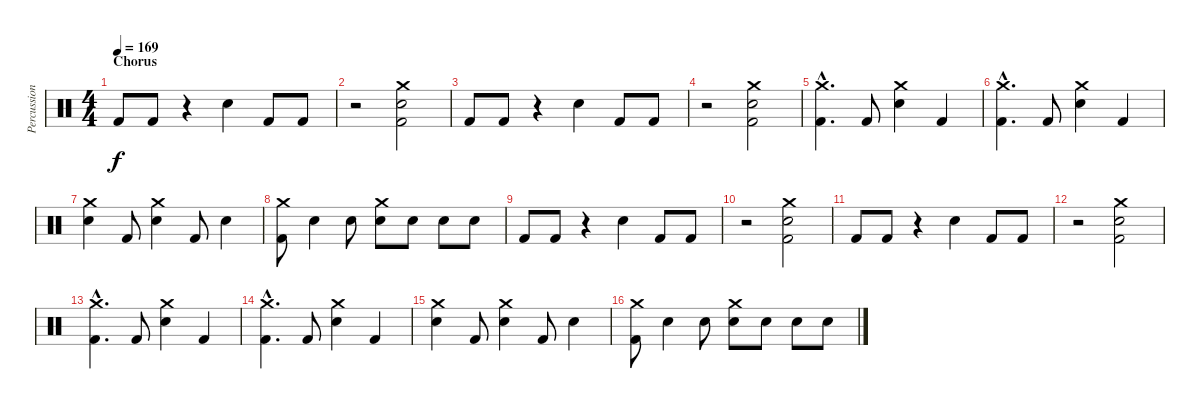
\track ("Percussion" "Percussion") {instrument percussion}
\staff {score}
\articulation defaults
\ts (4 4)
\section ("" "Chorus")
\tempo 169
\clef neutral
\ks c "Kick (hit) 2".8{dy f} "Kick (hit) 2".8
r.4 "Snare (hit) 2".4 "Kick (hit) 2".8 "Kick (hit) 2".8 |
r.2 ("Snare (hit) 2" "Kick (hit) 2" "Crash medium (hit)").2 |
"Kick (hit) 2".8 "Kick (hit) 2".8 r.4 "Snare (hit) 2".4 "Kick (hit) 2".8 "Kick (hit) 2".8 |
r.2 ("Snare (hit) 2" "Kick (hit) 2" "Crash medium (hit)").2 |
("Crash medium (hit)"{hac} "Kick (hit) 2"{hac}).4{d} "Kick (hit) 2".8 ("Crash medium (hit)" "Snare (hit) 2").4 "Kick (hit) 2".4 |
("Crash medium (hit)"{hac} "Kick (hit) 2"{hac}).4{d} "Kick (hit) 2".8 ("Crash medium (hit)" "Snare (hit) 2").4 "Kick (hit) 2".4 |
("Crash medium (hit)" "Snare (hit) 2").4 "Kick (hit) 2".8 ("Crash medium (hit)" "Snare (hit) 2").4 "Kick (hit) 2".8 "Snare (hit) 2".4 |
("Crash medium (hit)" "Kick (hit) 2").8 "Snare (hit) 2".4 "Snare (hit) 2".8 ("Crash medium (hit)" "Snare (hit) 2").8 "Snare (hit) 2".8 "Snare (hit) 2".8 "Snare (hit) 2".8 |
"Kick (hit) 2".8 "Kick (hit) 2".8 r.4 "Snare (hit) 2".4 "Kick (hit) 2".8 "Kick (hit) 2".8 |
r.2 ("Snare (hit) 2" "Kick (hit) 2" "Crash medium (hit)").2 |
"Kick (hit) 2".8 "Kick (hit) 2".8 r.4 "Snare (hit) 2".4 "Kick (hit) 2".8 "Kick (hit) 2".8 |
r.2 ("Snare (hit) 2" "Kick (hit) 2" "Crash medium (hit)").2 |
("Crash medium (hit)"{hac} "Kick (hit) 2"{hac}).4{d} "Kick (hit) 2".8 ("Crash medium (hit)" "Snare (hit) 2").4 "Kick (hit) 2".4 |
("Crash medium (hit)"{hac} "Kick (hit) 2"{hac}).4{d} "Kick (hit) 2".8 ("Crash medium (hit)" "Snare (hit) 2").4 "Kick (hit) 2".4 |
("Crash medium (hit)" "Snare (hit) 2").4 "Kick (hit) 2".8 ("Crash medium (hit)" "Snare (hit) 2").4 "Kick (hit) 2".8 "Snare (hit) 2".4 |
("Crash medium (hit)" "Kick (hit) 2").8 "Snare (hit) 2".4 "Snare (hit) 2".8 ("Crash medium (hit)" "Snare (hit) 2").8 "Snare (hit) 2".8 "Snare (hit) 2".8 "Snare (hit) 2".8
